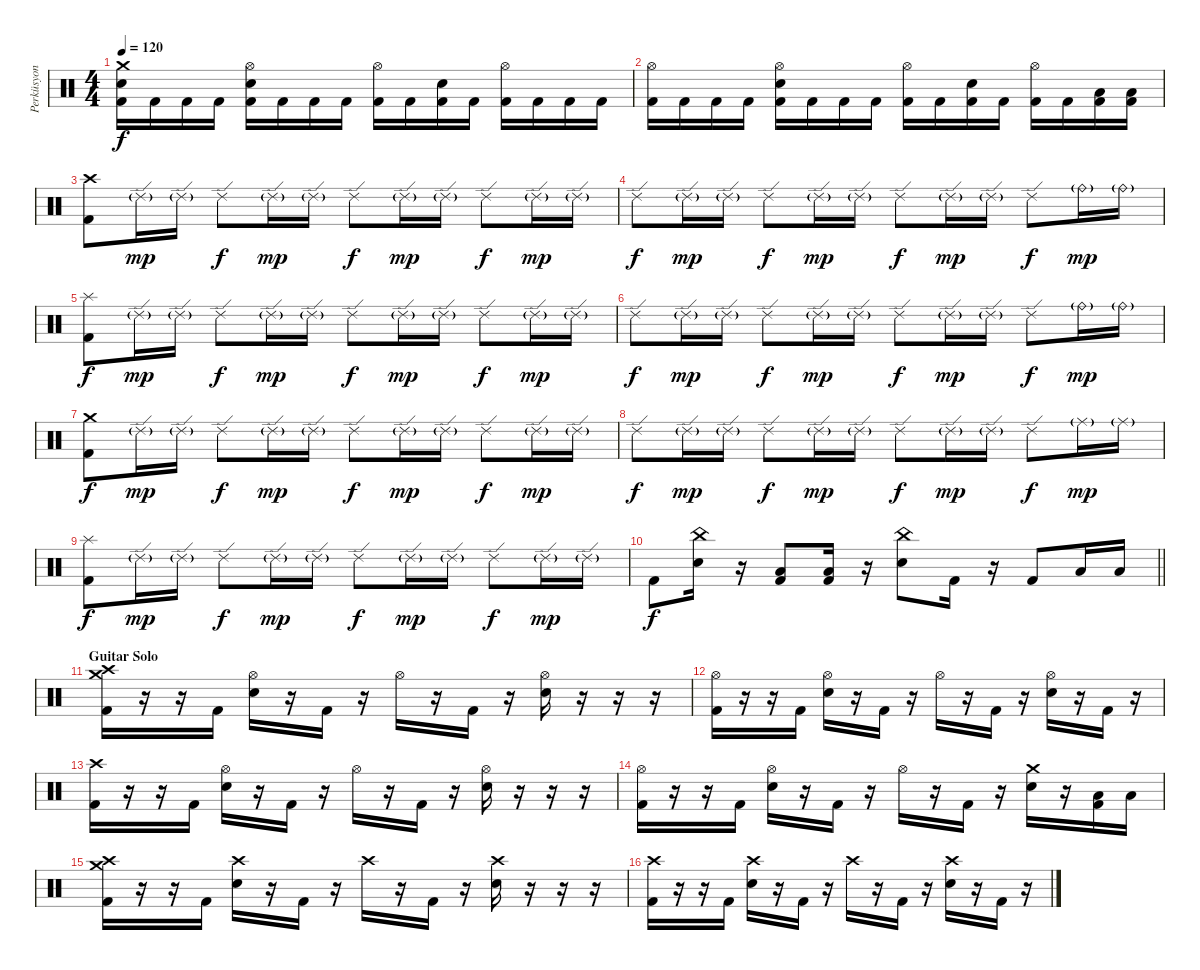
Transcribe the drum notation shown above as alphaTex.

\track ("Perküsyon" "Perküsyon") {instrument percussion}
\staff {score}
\articulation defaults
\ts (4 4)
\tempo 120
\clef neutral
\ks c
("Crash medium (hit)" "Snare (hit) 2" "Kick (hit) 2").16{dy f} "Kick (hit) 2".16 "Kick (hit) 2".16 "Kick (hit) 2".16 ("Hi-Hat (open)" "Snare (hit) 2" "Kick (hit) 2").16 "Kick (hit) 2".16 "Kick (hit) 2".16 "Kick (hit) 2".16 ("Hi-Hat (open)" "Kick (hit) 2").16 "Kick (hit) 2".16 ("Snare (hit) 2" "Kick (hit) 2").16 "Kick (hit) 2".16 ("Hi-Hat (open)" "Kick (hit) 2").16 "Kick (hit) 2".16 "Kick (hit) 2".16 "Kick (hit) 2".16 |
("Hi-Hat (open)" "Kick (hit) 2").16 "Kick (hit) 2".16 "Kick (hit) 2".16 "Kick (hit) 2".16 ("Hi-Hat (open)" "Snare (hit) 2" "Kick (hit) 2").16 "Kick (hit) 2".16 "Kick (hit) 2".16 "Kick (hit) 2".16 ("Hi-Hat (open)" "Kick (hit) 2").16 "Kick (hit) 2".16 ("Snare (hit) 2" "Kick (hit) 2").16 "Kick (hit) 2".16 ("Hi-Hat (open)" "Kick (hit) 2").16 "Kick (hit) 2".16 ("Low Floor Tom (hit)" "Kick (hit) 2").16 ("Low Floor Tom (hit)" "Kick (hit) 2").16 |
("Crash high (hit)" "Kick (hit) 2").8 "Ride (edge) 2"{g}.16{dy mp} "Ride (edge) 2"{g}.16 "Ride (edge) 2".8{dy f} "Ride (edge) 2"{g}.16{dy mp} "Ride (edge) 2"{g}.16 "Ride (edge) 2".8{dy f} "Ride (edge) 2"{g}.16{dy mp} "Ride (edge) 2"{g}.16 "Ride (edge) 2".8{dy f} "Ride (edge) 2"{g}.16{dy mp} "Ride (edge) 2"{g}.16 |
"Ride (edge) 2".8{dy f} "Ride (edge) 2"{g}.16{dy mp} "Ride (edge) 2"{g}.16 "Ride (edge) 2".8{dy f} "Ride (edge) 2"{g}.16{dy mp} "Ride (edge) 2"{g}.16 "Ride (edge) 2".8{dy f} "Ride (edge) 2"{g}.16{dy mp} "Ride (edge) 2"{g}.16 "Ride (edge) 2".8{dy f} "Ride (bell)"{g}.16{dy mp} "Ride (bell)"{g}.16 |
("Splash (hit)" "Kick (hit) 2").8{dy f} "Ride (edge) 2"{g}.16{dy mp} "Ride (edge) 2"{g}.16 "Ride (edge) 2".8{dy f} "Ride (edge) 2"{g}.16{dy mp} "Ride (edge) 2"{g}.16 "Ride (edge) 2".8{dy f} "Ride (edge) 2"{g}.16{dy mp} "Ride (edge) 2"{g}.16 "Ride (edge) 2".8{dy f} "Ride (edge) 2"{g}.16{dy mp} "Ride (edge) 2"{g}.16 |
"Ride (edge) 2".8{dy f} "Ride (edge) 2"{g}.16{dy mp} "Ride (edge) 2"{g}.16 "Ride (edge) 2".8{dy f} "Ride (edge) 2"{g}.16{dy mp} "Ride (edge) 2"{g}.16 "Ride (edge) 2".8{dy f} "Ride (edge) 2"{g}.16{dy mp} "Ride (edge) 2"{g}.16 "Ride (edge) 2".8{dy f} "Ride (bell)"{g}.16{dy mp} "Ride (bell)"{g}.16 |
("Crash medium (hit)" "Kick (hit) 2").8{dy f} "Ride (edge) 2"{g}.16{dy mp} "Ride (edge) 2"{g}.16 "Ride (edge) 2".8{dy f} "Ride (edge) 2"{g}.16{dy mp} "Ride (edge) 2"{g}.16 "Ride (edge) 2".8{dy f} "Ride (edge) 2"{g}.16{dy mp} "Ride (edge) 2"{g}.16 "Ride (edge) 2".8{dy f} "Ride (edge) 2"{g}.16{dy mp} "Ride (edge) 2"{g}.16 |
"Ride (edge) 2".8{dy f} "Ride (edge) 2"{g}.16{dy mp} "Ride (edge) 2"{g}.16 "Ride (edge) 2".8{dy f} "Ride (edge) 2"{g}.16{dy mp} "Ride (edge) 2"{g}.16 "Ride (edge) 2".8{dy f} "Ride (edge) 2"{g}.16{dy mp} "Ride (edge) 2"{g}.16 "Ride (edge) 2".8{dy f} "Ride (middle)"{g}.16{dy mp} "Ride (middle)"{g}.16 |
("Splash (hit)" "Kick (hit) 2").8{dy f} "Ride (edge) 2"{g}.16{dy mp} "Ride (edge) 2"{g}.16 "Ride (edge) 2".8{dy f} "Ride (edge) 2"{g}.16{dy mp} "Ride (edge) 2"{g}.16 "Ride (edge) 2".8{dy f} "Ride (edge) 2"{g}.16{dy mp} "Ride (edge) 2"{g}.16 "Ride (edge) 2".8{dy f} "Ride (edge) 2"{g}.16{dy mp} "Ride (edge) 2"{g}.16 |
\barLineRight lightlight "Kick (hit) 2".8{dy f}
("China (hit)" "Snare (hit) 2").16 r.16 ("Low Floor Tom (hit)" "Kick (hit) 2").8 ("Low Floor Tom (hit)" "Kick (hit) 2").16 r.16 ("China (hit)" "Snare (hit) 2").8 "Kick (hit) 2".16 r.16 "Kick (hit) 2".8 "Low Floor Tom (hit)".16 "Low Floor Tom (hit)".16 |
\section ("" "Guitar Solo")
("Crash high (hit)" "Crash medium (hit)" "Kick (hit) 2").16 r.16 r.16 "Kick (hit) 2".16 ("Hi-Hat (open)" "Snare (hit) 2").16 r.16 "Kick (hit) 2".16 r.16 "Hi-Hat (open)".16 r.16 "Kick (hit) 2".16 r.16 ("Hi-Hat (open)" "Snare (hit) 2").16 r.16 r.16 r.16 |
("Hi-Hat (open)" "Kick (hit) 2").16 r.16 r.16 "Kick (hit) 2".16 ("Hi-Hat (open)" "Snare (hit) 2").16 r.16 "Kick (hit) 2".16 r.16 "Hi-Hat (open)".16 r.16 "Kick (hit) 2".16 r.16 ("Hi-Hat (open)" "Snare (hit) 2").16 r.16 "Kick (hit) 2".16 r.16 |
("Crash high (hit)" "Kick (hit) 2").16 r.16 r.16 "Kick (hit) 2".16 ("Hi-Hat (open)" "Snare (hit) 2").16 r.16 "Kick (hit) 2".16 r.16 "Hi-Hat (open)".16 r.16 "Kick (hit) 2".16 r.16 ("Hi-Hat (open)" "Snare (hit) 2").16 r.16 r.16 r.16 |
("Hi-Hat (open)" "Kick (hit) 2").16 r.16 r.16 "Kick (hit) 2".16 ("Hi-Hat (open)" "Snare (hit) 2").16 r.16 "Kick (hit) 2".16 r.16 "Hi-Hat (open)".16 r.16 "Kick (hit) 2".16 r.16 ("Crash medium (hit)" "Snare (hit) 2").16 r.16 ("Low Floor Tom (hit)" "Kick (hit) 2").16 "Low Floor Tom (hit)".16 |
("Crash high (hit)" "Crash medium (hit)" "Kick (hit) 2").16 r.16 r.16 "Kick (hit) 2".16 ("Crash high (hit)" "Snare (hit) 2").16 r.16 "Kick (hit) 2".16 r.16 "Crash high (hit)".16 r.16 "Kick (hit) 2".16 r.16 ("Crash high (hit)" "Snare (hit) 2").16 r.16 r.16 r.16 |
("Crash high (hit)" "Kick (hit) 2").16 r.16 r.16 "Kick (hit) 2".16 ("Crash high (hit)" "Snare (hit) 2").16 r.16 "Kick (hit) 2".16 r.16 "Crash high (hit)".16 r.16 "Kick (hit) 2".16 r.16 ("Crash high (hit)" "Snare (hit) 2").16 r.16 "Kick (hit) 2".16 r.16
